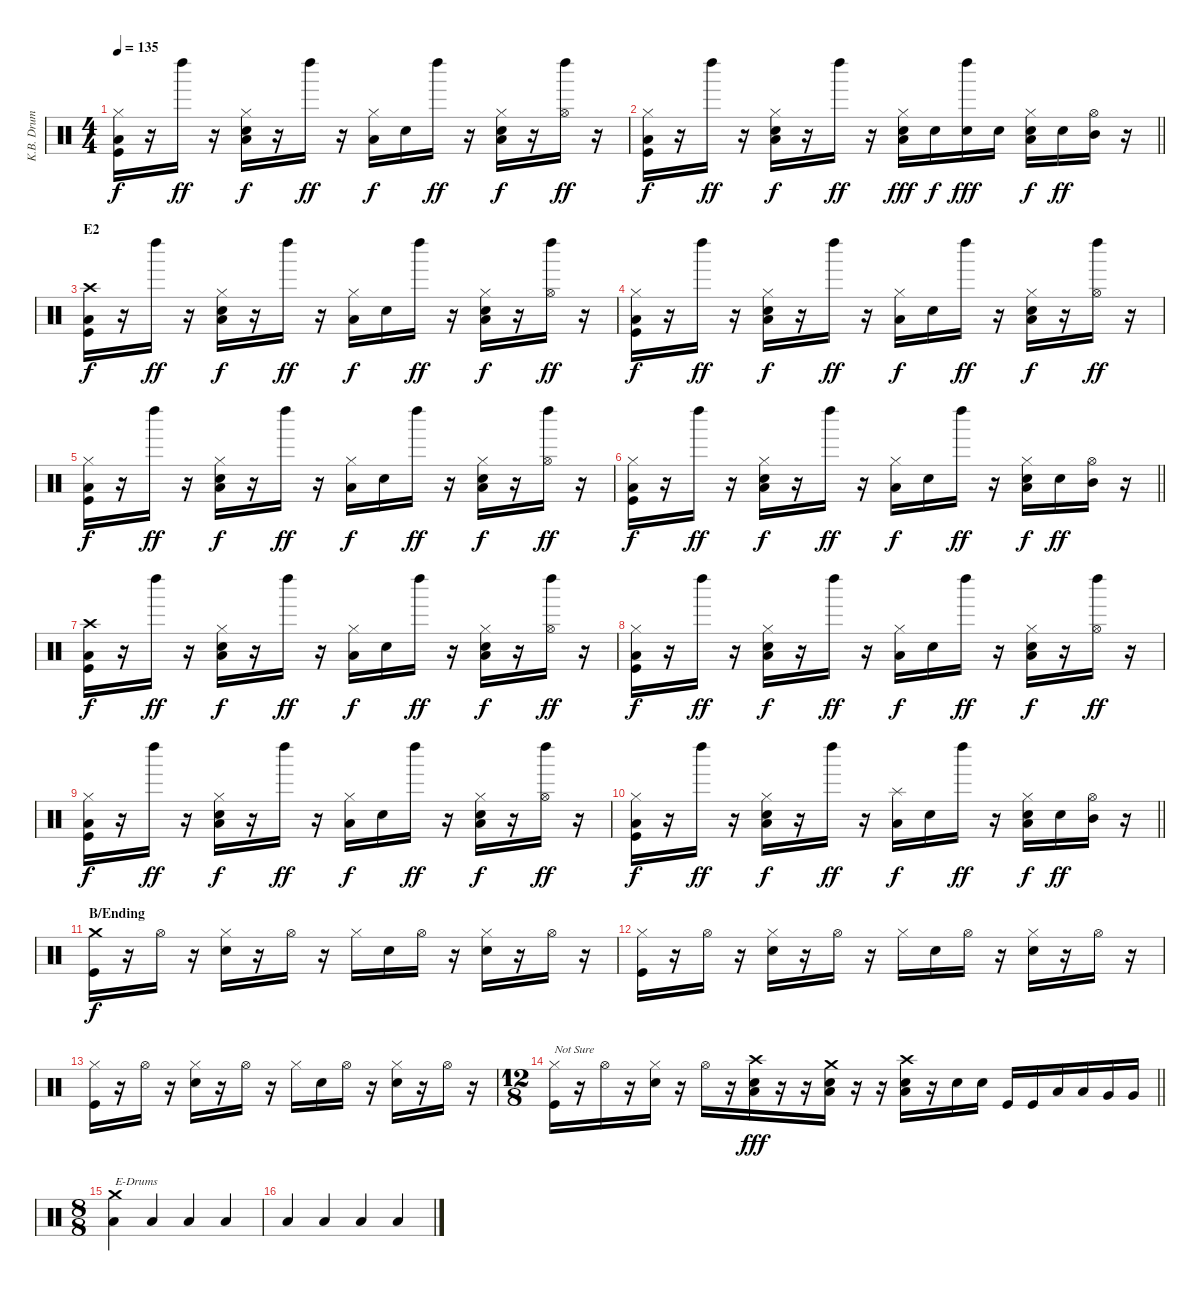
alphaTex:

\track ("K.B. Drum" "K.B. Drum") {instrument percussion}
\staff {score}
\articulation defaults
\ts (4 4)
\tempo 135
\clef neutral
\ks c
("Hi-Hat (closed)" "Low Tom (hit)" "Kick (hit)").16{dy f} r.16 "Left Maraca (hit)".16{dy ff} r.16 ("Hi-Hat (closed)" "Electric Snare (hit)" "Low Tom (hit)").16{dy f} r.16 "Left Maraca (hit)".16{dy ff} r.16 ("Hi-Hat (closed)" "Low Tom (hit)").16{dy f} "Electric Snare (hit)".16 "Left Maraca (hit)".16{dy ff} r.16 ("Hi-Hat (closed)" "Electric Snare (hit)" "Low Tom (hit)").16{dy f} r.16 ("Hi-Hat (open)" "Left Maraca (hit)").16{dy ff} r.16 |
\barLineRight lightlight
("Hi-Hat (closed)" "Low Tom (hit)" "Kick (hit)").16{dy f} r.16 "Left Maraca (hit)".16{dy ff} r.16 ("Hi-Hat (closed)" "Electric Snare (hit)" "Low Tom (hit)").16{dy f} r.16 "Left Maraca (hit)".16{dy ff} r.16 ("Hi-Hat (closed)" "Electric Snare (hit)" "Low Tom (hit)").16{dy fff} "Electric Snare (hit)".16{dy f} ("Left Maraca (hit)" "Electric Snare (hit)").16{dy fff} "Electric Snare (hit)".16 ("Hi-Hat (closed)" "Electric Snare (hit)" "Low Tom (hit)").16{dy f} "Electric Snare (hit)".16{dy ff} ("Hi-Hat (open)" "Mid Tom (hit)").16 r.16 |
\section ("" "E2")
("Crash high (hit)" "Low Tom (hit)" "Kick (hit)").16{dy f} r.16 "Left Maraca (hit)".16{dy ff} r.16 ("Hi-Hat (closed)" "Electric Snare (hit)" "Low Tom (hit)").16{dy f} r.16 "Left Maraca (hit)".16{dy ff} r.16 ("Hi-Hat (closed)" "Low Tom (hit)").16{dy f} "Electric Snare (hit)".16 "Left Maraca (hit)".16{dy ff} r.16 ("Hi-Hat (closed)" "Electric Snare (hit)" "Low Tom (hit)").16{dy f} r.16 ("Hi-Hat (open)" "Left Maraca (hit)").16{dy ff} r.16 |
("Hi-Hat (closed)" "Low Tom (hit)" "Kick (hit)").16{dy f} r.16 "Left Maraca (hit)".16{dy ff} r.16 ("Hi-Hat (closed)" "Electric Snare (hit)" "Low Tom (hit)").16{dy f} r.16 "Left Maraca (hit)".16{dy ff} r.16 ("Hi-Hat (closed)" "Low Tom (hit)").16{dy f} "Electric Snare (hit)".16 "Left Maraca (hit)".16{dy ff} r.16 ("Hi-Hat (closed)" "Electric Snare (hit)" "Low Tom (hit)").16{dy f} r.16 ("Hi-Hat (open)" "Left Maraca (hit)").16{dy ff} r.16 |
("Hi-Hat (closed)" "Low Tom (hit)" "Kick (hit)").16{dy f} r.16 "Left Maraca (hit)".16{dy ff} r.16 ("Hi-Hat (closed)" "Electric Snare (hit)" "Low Tom (hit)").16{dy f} r.16 "Left Maraca (hit)".16{dy ff} r.16 ("Hi-Hat (closed)" "Low Tom (hit)").16{dy f} "Electric Snare (hit)".16 "Left Maraca (hit)".16{dy ff} r.16 ("Hi-Hat (closed)" "Electric Snare (hit)" "Low Tom (hit)").16{dy f} r.16 ("Hi-Hat (open)" "Left Maraca (hit)").16{dy ff} r.16 |
\barLineRight lightlight
("Hi-Hat (closed)" "Low Tom (hit)" "Kick (hit)").16{dy f} r.16 "Left Maraca (hit)".16{dy ff} r.16 ("Hi-Hat (closed)" "Electric Snare (hit)" "Low Tom (hit)").16{dy f} r.16 "Left Maraca (hit)".16{dy ff} r.16 ("Hi-Hat (closed)" "Low Tom (hit)").16{dy f} "Electric Snare (hit)".16 "Left Maraca (hit)".16{dy ff} r.16 ("Hi-Hat (closed)" "Electric Snare (hit)" "Low Tom (hit)").16{dy f} "Electric Snare (hit)".16{dy ff} ("Hi-Hat (open)" "Mid Tom (hit)").16 r.16 |
("Crash high (hit)" "Low Tom (hit)" "Kick (hit)").16{dy f} r.16 "Left Maraca (hit)".16{dy ff} r.16 ("Hi-Hat (closed)" "Electric Snare (hit)" "Low Tom (hit)").16{dy f} r.16 "Left Maraca (hit)".16{dy ff} r.16 ("Hi-Hat (closed)" "Low Tom (hit)").16{dy f} "Electric Snare (hit)".16 "Left Maraca (hit)".16{dy ff} r.16 ("Hi-Hat (closed)" "Electric Snare (hit)" "Low Tom (hit)").16{dy f} r.16 ("Hi-Hat (open)" "Left Maraca (hit)").16{dy ff} r.16 |
("Hi-Hat (closed)" "Low Tom (hit)" "Kick (hit)").16{dy f} r.16 "Left Maraca (hit)".16{dy ff} r.16 ("Hi-Hat (closed)" "Electric Snare (hit)" "Low Tom (hit)").16{dy f} r.16 "Left Maraca (hit)".16{dy ff} r.16 ("Hi-Hat (closed)" "Low Tom (hit)").16{dy f} "Electric Snare (hit)".16 "Left Maraca (hit)".16{dy ff} r.16 ("Hi-Hat (closed)" "Electric Snare (hit)" "Low Tom (hit)").16{dy f} r.16 ("Hi-Hat (open)" "Left Maraca (hit)").16{dy ff} r.16 |
("Hi-Hat (closed)" "Low Tom (hit)" "Kick (hit)").16{dy f} r.16 "Left Maraca (hit)".16{dy ff} r.16 ("Hi-Hat (closed)" "Electric Snare (hit)" "Low Tom (hit)").16{dy f} r.16 "Left Maraca (hit)".16{dy ff} r.16 ("Hi-Hat (closed)" "Low Tom (hit)").16{dy f} "Electric Snare (hit)".16 "Left Maraca (hit)".16{dy ff} r.16 ("Hi-Hat (closed)" "Electric Snare (hit)" "Low Tom (hit)").16{dy f} r.16 ("Hi-Hat (open)" "Left Maraca (hit)").16{dy ff} r.16 |
\barLineRight lightlight
("Hi-Hat (closed)" "Low Tom (hit)" "Kick (hit)").16{dy f} r.16 "Left Maraca (hit)".16{dy ff} r.16 ("Hi-Hat (closed)" "Electric Snare (hit)" "Low Tom (hit)").16{dy f} r.16 "Left Maraca (hit)".16{dy ff} r.16 ("Splash (hit)" "Low Tom (hit)").16{dy f} "Electric Snare (hit)".16 "Left Maraca (hit)".16{dy ff} r.16 ("Hi-Hat (closed)" "Electric Snare (hit)" "Low Tom (hit)").16{dy f} "Electric Snare (hit)".16{dy ff} ("Hi-Hat (open)" "Mid Tom (hit)").16 r.16 |
\section ("" "B/Ending")
("Crash medium (hit)" "Kick (hit)").16{dy f} r.16 "Hi-Hat (open)".16 r.16 ("Hi-Hat (closed)" "Electric Snare (hit)").16 r.16 "Hi-Hat (open)".16 r.16 "Hi-Hat (closed)".16 "Electric Snare (hit)".16 "Hi-Hat (open)".16 r.16 ("Hi-Hat (closed)" "Electric Snare (hit)").16 r.16 "Hi-Hat (open)".16 r.16 |
("Hi-Hat (closed)" "Kick (hit)").16 r.16 "Hi-Hat (open)".16 r.16 ("Hi-Hat (closed)" "Electric Snare (hit)").16 r.16 "Hi-Hat (open)".16 r.16 "Hi-Hat (closed)".16 "Electric Snare (hit)".16 "Hi-Hat (open)".16 r.16 ("Hi-Hat (closed)" "Electric Snare (hit)").16 r.16 "Hi-Hat (open)".16 r.16 |
("Hi-Hat (closed)" "Kick (hit)").16 r.16 "Hi-Hat (open)".16 r.16 ("Hi-Hat (closed)" "Electric Snare (hit)").16 r.16 "Hi-Hat (open)".16 r.16 "Hi-Hat (closed)".16 "Electric Snare (hit)".16 "Hi-Hat (open)".16 r.16 ("Hi-Hat (closed)" "Electric Snare (hit)").16 r.16 "Hi-Hat (open)".16 r.16 |
\ts (12 8)
\barLineRight lightlight
("Hi-Hat (closed)" "Kick (hit)").16{txt "Not Sure"} r.16 "Hi-Hat (open)".16 r.16 ("Hi-Hat (closed)" "Electric Snare (hit)").16 r.16 "Hi-Hat (open)".16 r.16 ("Crash high (hit)" "Electric Snare (hit)" "Low Tom (hit)").16{dy fff} r.16 r.16 ("Crash medium (hit)" "Electric Snare (hit)" "Low Tom (hit)").16 r.16 r.16 ("Crash high (hit)" "Electric Snare (hit)" "Low Tom (hit)").16 r.16 "Electric Snare (hit)".16 "Electric Snare (hit)".16 "Kick (hit)".16 "Kick (hit)".16 "Low Tom (hit)".16 "Low Tom (hit)".16 "Very Low Tom (hit)".16 "Very Low Tom (hit)".16 |
\ts (8 8)
("Crash medium (hit)" "Low Tom (hit)").4{txt "E-Drums"} "Low Tom (hit)".4 "Low Tom (hit)".4 "Low Tom (hit)".4 |
"Low Tom (hit)".4 "Low Tom (hit)".4 "Low Tom (hit)".4 "Low Tom (hit)".4
